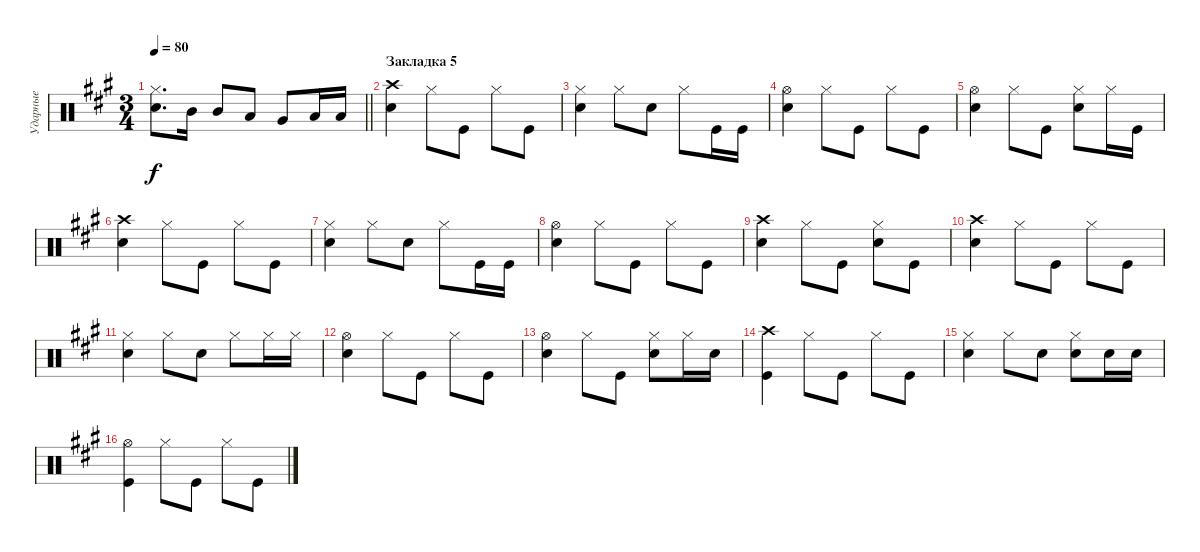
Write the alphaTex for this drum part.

\track ("Ударные" "Ударные") {instrument percussion}
\staff {score}
\articulation defaults
\ts (3 4)
\tempo 80
\clef neutral
\barLineRight lightlight
\ks f#minor
("Snare (hit) 2" "Hi-Hat (closed)").8{d dy f} "Mid Tom (hit)".16 "Mid Tom (hit)".8 "Low Tom (hit)".8 "Very Low Tom (hit)".8 "Low Floor Tom (hit)".16 "Low Floor Tom (hit)".16 |
\section ("" "Закладка 5")
("Snare (hit) 2" "Crash high (hit)").4 "Hi-Hat (closed)".8 "Kick (hit)".8 "Hi-Hat (closed)".8 "Kick (hit)".8 |
("Snare (hit) 2" "Hi-Hat (closed)").4 "Hi-Hat (closed)".8 "Snare (hit) 2".8 "Hi-Hat (closed)".8 "Kick (hit)".16 "Kick (hit)".16 |
("Snare (hit) 2" "Hi-Hat (open)").4 "Hi-Hat (closed)".8 "Kick (hit)".8 "Hi-Hat (closed)".8 "Kick (hit)".8 |
("Snare (hit) 2" "Hi-Hat (open)").4 "Hi-Hat (closed)".8 "Kick (hit)".8 ("Snare (hit) 2" "Hi-Hat (closed)").8 "Hi-Hat (closed)".16 "Kick (hit)".16 |
("Snare (hit) 2" "Crash high (hit)").4 "Hi-Hat (closed)".8 "Kick (hit)".8 "Hi-Hat (closed)".8 "Kick (hit)".8 |
("Snare (hit) 2" "Hi-Hat (closed)").4 "Hi-Hat (closed)".8 "Snare (hit) 2".8 "Hi-Hat (closed)".8 "Kick (hit)".16 "Kick (hit)".16 |
("Snare (hit) 2" "Hi-Hat (open)").4 "Hi-Hat (closed)".8 "Kick (hit)".8 "Hi-Hat (closed)".8 "Kick (hit)".8 |
("Snare (hit) 2" "Crash high (hit)").4 "Hi-Hat (closed)".8 "Kick (hit)".8 ("Snare (hit) 2" "Hi-Hat (closed)").8 "Kick (hit)".8 |
("Snare (hit) 2" "Crash high (hit)").4 "Hi-Hat (closed)".8 "Kick (hit)".8 "Hi-Hat (closed)".8 "Kick (hit)".8 |
("Snare (hit) 2" "Hi-Hat (closed)").4 "Hi-Hat (closed)".8 "Snare (hit) 2".8 "Hi-Hat (closed)".8 "Hi-Hat (closed)".16 "Hi-Hat (closed)".16 |
("Snare (hit) 2" "Hi-Hat (open)").4 "Hi-Hat (closed)".8 "Kick (hit)".8 "Hi-Hat (closed)".8 "Kick (hit)".8 |
("Snare (hit) 2" "Hi-Hat (open)").4 "Hi-Hat (closed)".8 "Kick (hit)".8 ("Snare (hit) 2" "Hi-Hat (closed)").8 "Hi-Hat (closed)".16 "Snare (hit) 2".16 |
("Kick (hit)" "Crash high (hit)").4 "Hi-Hat (closed)".8 "Kick (hit)".8 "Hi-Hat (closed)".8 "Kick (hit)".8 |
("Snare (hit) 2" "Hi-Hat (closed)").4 "Hi-Hat (closed)".8 "Snare (hit) 2".8 ("Snare (hit) 2" "Hi-Hat (closed)").8 "Snare (hit) 2".16 "Snare (hit) 2".16 |
("Kick (hit)" "Hi-Hat (open)").4 "Hi-Hat (closed)".8 "Kick (hit)".8 "Hi-Hat (closed)".8 "Kick (hit)".8
